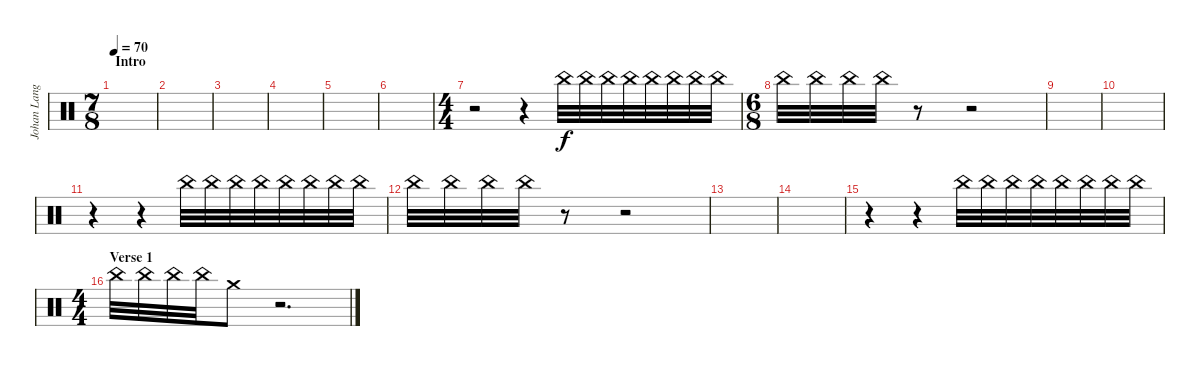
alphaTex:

\track ("Johan Langell" "Johan Lang") {instrument percussion}
\staff {score}
\articulation defaults
\ts (7 8)
\section ("" "Intro")
\tempo 70
\clef neutral
\ks c
|
|
|
|
|
|
\ts (4 4)
r.2 r.4{volume 0} "China (hit)".32{volume 13} "China (hit)".32 "China (hit)".32 "China (hit)".32 "China (hit)".32 "China (hit)".32 "China (hit)".32 "China (hit)".32 |
\ts (6 8)
"China (hit)".32 "China (hit)".32 "China (hit)".32 "China (hit)".32 r.8 r.2 |
|
|
r.4 r.4{volume 0} "China (hit)".32{volume 13} "China (hit)".32 "China (hit)".32 "China (hit)".32 "China (hit)".32 "China (hit)".32 "China (hit)".32 "China (hit)".32 |
"China (hit)".32 "China (hit)".32 "China (hit)".32 "China (hit)".32 r.8 r.2 |
|
|
r.4 r.4{volume 0} "China (hit)".32{volume 13} "China (hit)".32 "China (hit)".32 "China (hit)".32 "China (hit)".32 "China (hit)".32 "China (hit)".32 "China (hit)".32 |
\ts (4 4)
\section ("" "Verse 1")
"China (hit)".32 "China (hit)".32 "China (hit)".32 "China (hit)".32 "Crash medium (hit)".8 r.2{d}
